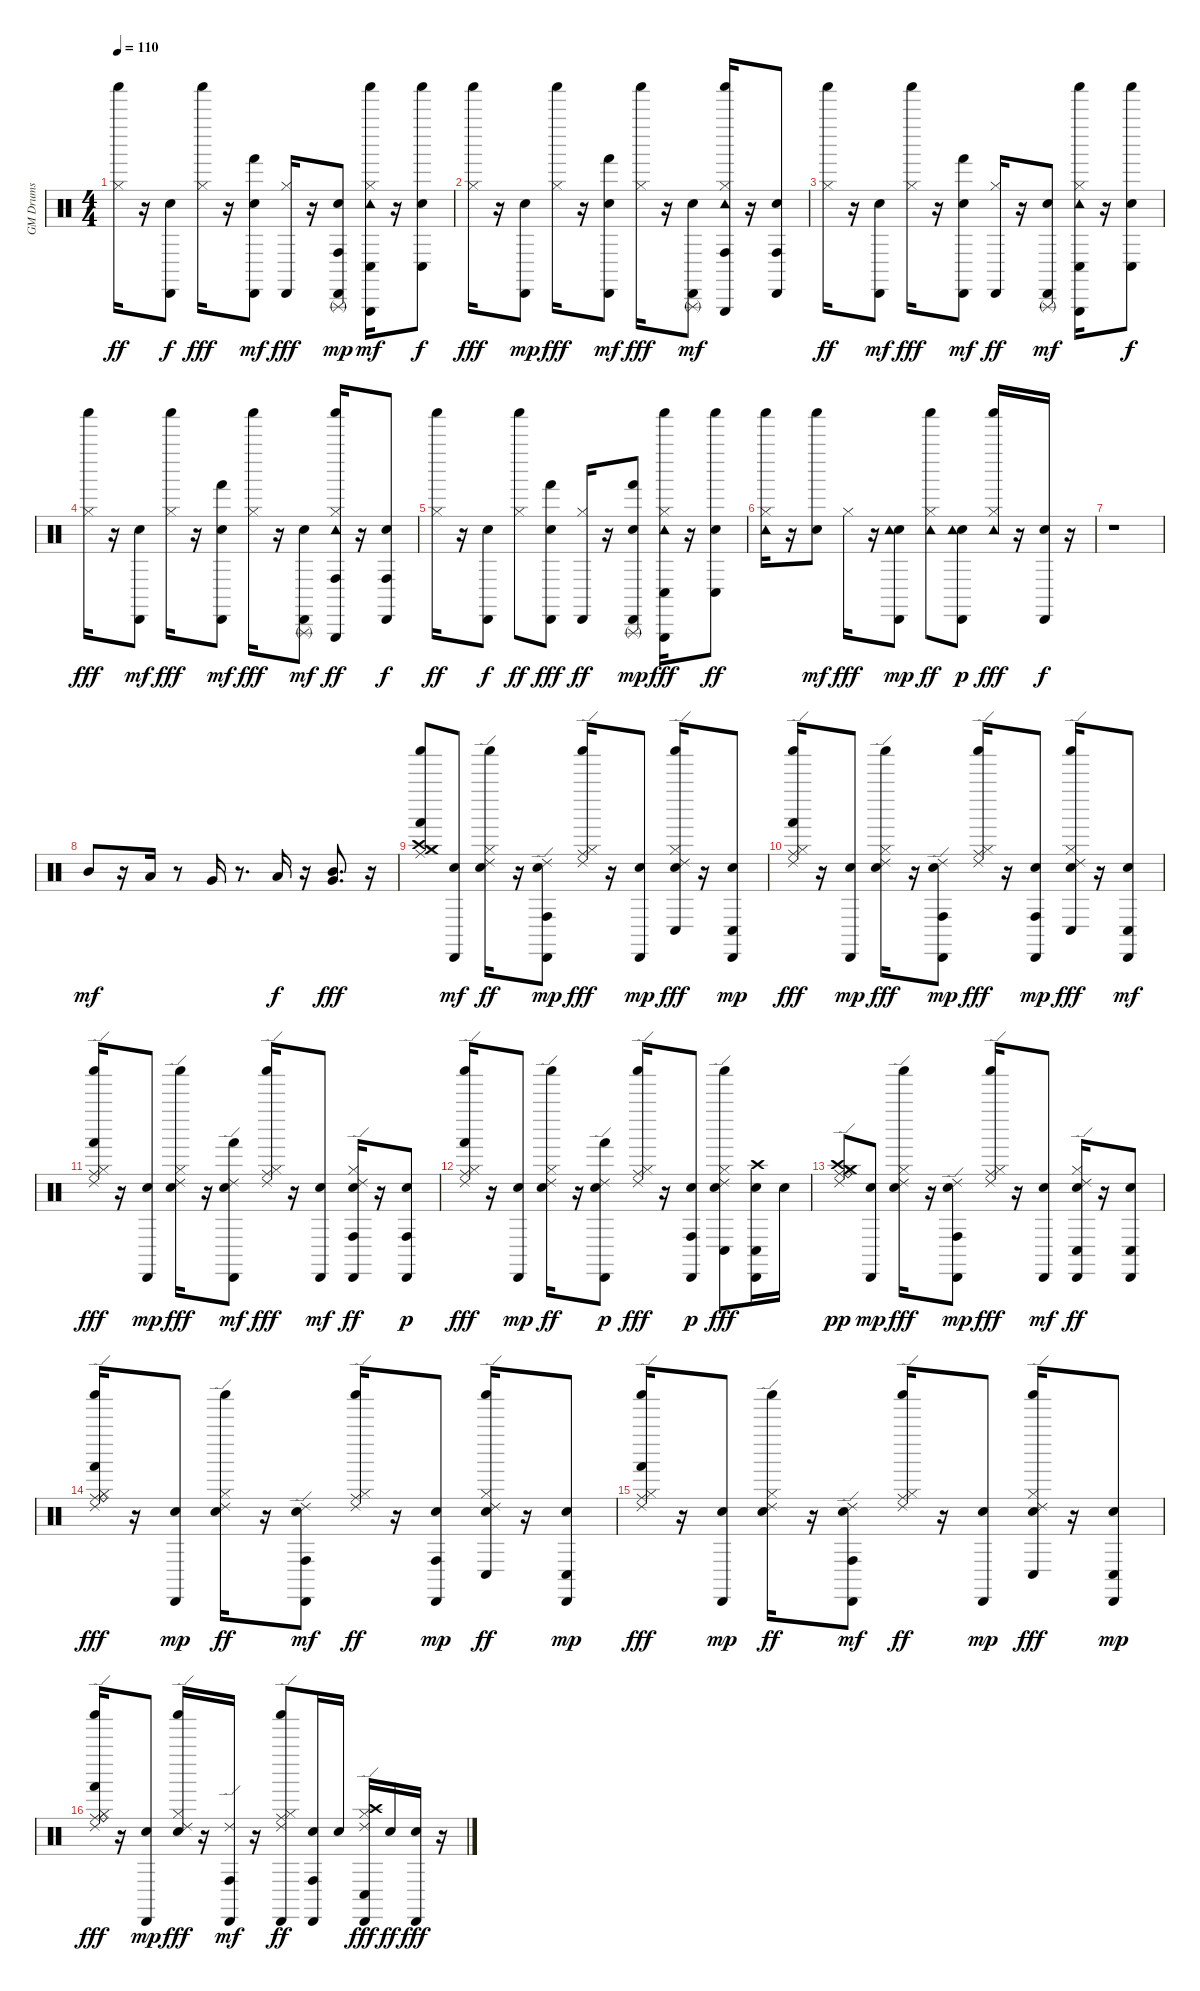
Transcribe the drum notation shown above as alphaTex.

\track ("GM Drums" "GM Drums") {instrument percussion}
\staff {score}
\articulation defaults
\ts (4 4)
\tempo 110
\clef neutral
\ks c
("Hi-Hat (closed)" "Shaker (hit)").16{dy ff} r.16 ("Snare (hit)" "Cabasa (hit)").8{dy f} ("Hi-Hat (closed)" "Shaker (hit)").16{dy fff} r.16 ("Snare (hit)" "Hand (hit)" "Cabasa (hit)").8{dy mf} ("Hi-Hat (closed)" "Cabasa (hit)").16{dy fff} r.16 ("Snare (hit)" "Conga high (hit)" "Cabasa (hit)" "Triangle (rnute)").8{dy mp} ("Hi-Hat (closed)" "Tambourine (hit)" "Conga low (hit)" "Triangle (hit)" "Shaker (hit)").16{dy mf} r.16 ("Snare (hit)" "Conga low (hit)" "Shaker (hit)").8{dy f} |
("Hi-Hat (closed)" "Shaker (hit)").16{dy fff} r.16 ("Snare (hit)" "Cabasa (hit)").8{dy mp} ("Hi-Hat (closed)" "Shaker (hit)").16{dy fff} r.16 ("Snare (hit)" "Hand (hit)" "Cabasa (hit)").8{dy mf} ("Hi-Hat (closed)" "Shaker (hit)").16{dy fff} r.16 ("Snare (hit)" "Cabasa (hit)" "Triangle (rnute)").8{dy mf} ("Hi-Hat (closed)" "Tambourine (hit)" "Conga high (hit)" "Triangle (hit)" "Shaker (hit)").16 r.16 ("Snare (hit)" "Conga high (hit)" "Cabasa (hit)").8 |
("Hi-Hat (closed)" "Shaker (hit)").16{dy ff} r.16 ("Snare (hit)" "Cabasa (hit)").8{dy mf} ("Hi-Hat (closed)" "Shaker (hit)").16{dy fff} r.16 ("Snare (hit)" "Hand (hit)" "Cabasa (hit)").8{dy mf} ("Hi-Hat (closed)" "Cabasa (hit)").16{dy ff} r.16 ("Snare (hit)" "Cabasa (hit)" "Triangle (rnute)").8{dy mf} ("Hi-Hat (closed)" "Tambourine (hit)" "Conga low (hit)" "Triangle (hit)" "Shaker (hit)").16 r.16 ("Snare (hit)" "Conga low (hit)" "Shaker (hit)").8{dy f} |
("Hi-Hat (closed)" "Shaker (hit)").16{dy fff} r.16 ("Snare (hit)" "Cabasa (hit)").8{dy mf} ("Hi-Hat (closed)" "Shaker (hit)").16{dy fff} r.16 ("Snare (hit)" "Hand (hit)" "Cabasa (hit)").8{dy mf} ("Hi-Hat (closed)" "Shaker (hit)").16{dy fff} r.16 ("Snare (hit)" "Cabasa (hit)" "Triangle (rnute)").8{dy mf} ("Hi-Hat (closed)" "Tambourine (hit)" "Conga high (hit)" "Triangle (hit)" "Shaker (hit)").16{dy ff} r.16 ("Snare (hit)" "Conga high (hit)" "Cabasa (hit)").8{dy f} |
("Hi-Hat (closed)" "Shaker (hit)").16{dy ff} r.16 ("Snare (hit)" "Cabasa (hit)").8{dy f} ("Hi-Hat (closed)" "Shaker (hit)").8{dy ff} ("Snare (hit)" "Hand (hit)" "Cabasa (hit)").8{dy fff} ("Hi-Hat (closed)" "Cabasa (hit)").16{dy ff} r.16 ("Snare (hit)" "Hand (hit)" "Cabasa (hit)" "Triangle (rnute)").8{dy mp} ("Hi-Hat (closed)" "Tambourine (hit)" "Conga low (hit)" "Triangle (hit)" "Shaker (hit)").16{dy fff} r.16 ("Snare (hit)" "Conga low (hit)" "Shaker (hit)").8{dy ff} |
("Hi-Hat (closed)" "Tambourine (hit)" "Shaker (hit)").16 r.16 ("Snare (hit)" "Shaker (hit)").8{dy mf} "Hi-Hat (closed)".16{dy fff} r.16 ("Snare (hit)" "Tambourine (hit)" "Cabasa (hit)").8{dy mp} ("Hi-Hat (closed)" "Tambourine (hit)" "Shaker (hit)").8{dy ff} ("Snare (hit)" "Tambourine (hit)" "Cabasa (hit)").8{dy p} ("Hi-Hat (closed)" "Tambourine (hit)" "Shaker (hit)").16{dy fff} r.16 ("Snare (hit)" "Cabasa (hit)").16{dy f} r.16 |
r.1 |
"Mid Tom (hit)".8{dy mf} r.16 "Low Tom (hit)".16 r.8 "Very Low Tom (hit)".16 r.8{d} "Low Floor Tom (hit)".16{dy f} r.16 ("Very Low Tom (hit)" "Mid Tom (hit)").8{d dy fff} r.16 |
("Hi-Hat (closed)" "Crash high (hit)" "Ride (middle)" "Crash medium (hit)" "Hand (hit)" "Shaker (hit)").8 ("Snare (hit)" "Cabasa (hit)").8{dy mf} ("Snare (hit) 2" "Hi-Hat (closed)" "Ride (edge) 2" "Shaker (hit)").16{dy ff} r.16 ("Snare (hit)" "Ride (edge) 2" "Conga high (hit)" "Cabasa (hit)").8{dy mp} ("Hi-Hat (closed)" "Ride (middle)" "Ride (edge) 2" "Shaker (hit)").16{dy fff} r.16 ("Snare (hit)" "Cabasa (hit)").8{dy mp} ("Snare (hit) 2" "Hi-Hat (closed)" "Ride (edge) 2" "Conga low (hit)" "Shaker (hit)").16{dy fff} r.16 ("Snare (hit)" "Conga low (hit)" "Cabasa (hit)").8{dy mp} |
("Hi-Hat (closed)" "Ride (middle)" "Ride (edge) 2" "Hand (hit)" "Shaker (hit)").16{dy fff} r.16 ("Snare (hit)" "Cabasa (hit)").8{dy mp} ("Snare (hit) 2" "Hi-Hat (closed)" "Ride (edge) 2" "Shaker (hit)").16{dy fff} r.16 ("Snare (hit)" "Ride (edge) 2" "Conga high (hit)" "Cabasa (hit)").8{dy mp} ("Hi-Hat (closed)" "Ride (middle)" "Ride (edge) 2" "Shaker (hit)").16{dy fff} r.16 ("Snare (hit)" "Conga high (hit)" "Cabasa (hit)").8{dy mp} ("Snare (hit) 2" "Hi-Hat (closed)" "Ride (edge) 2" "Conga low (hit)" "Shaker (hit)").16{dy fff} r.16 ("Snare (hit)" "Conga low (hit)" "Cabasa (hit)").8{dy mf} |
("Hi-Hat (closed)" "Ride (middle)" "Ride (edge) 2" "Hand (hit)" "Shaker (hit)").16{dy fff} r.16 ("Snare (hit)" "Cabasa (hit)").8{dy mp} ("Snare (hit) 2" "Hi-Hat (closed)" "Ride (edge) 2" "Shaker (hit)").16{dy fff} r.16 ("Snare (hit)" "Ride (edge) 2" "Hand (hit)" "Cabasa (hit)").8{dy mf} ("Hi-Hat (closed)" "Ride (middle)" "Ride (edge) 2" "Shaker (hit)").16{dy fff} r.16 ("Snare (hit)" "Cabasa (hit)").8{dy mf} ("Snare (hit) 2" "Hi-Hat (closed)" "Ride (edge) 2" "Conga high (hit)" "Cabasa (hit)").16{dy ff} r.16 ("Snare (hit)" "Conga high (hit)" "Cabasa (hit)").8{dy p} |
("Hi-Hat (closed)" "Ride (middle)" "Ride (edge) 2" "Hand (hit)" "Shaker (hit)").16{dy fff} r.16 ("Snare (hit)" "Cabasa (hit)").8{dy mp} ("Snare (hit) 2" "Hi-Hat (closed)" "Ride (edge) 2" "Shaker (hit)").16{dy ff} r.16 ("Snare (hit)" "Ride (edge) 2" "Hand (hit)" "Cabasa (hit)").8{dy p} ("Hi-Hat (closed)" "Ride (middle)" "Ride (edge) 2" "Shaker (hit)").16{dy fff} r.16 ("Snare (hit)" "Conga high (hit)" "Cabasa (hit)").8{dy p} ("Snare (hit) 2" "Hi-Hat (closed)" "Ride (edge) 2" "Conga low (hit)" "Shaker (hit)").8{dy fff} ("Snare (hit)" "Conga low (hit)" "Cabasa (hit)" "Crash high (hit)").16 "Snare (hit) 2".16 |
("Hi-Hat (closed)" "Crash high (hit)" "Ride (middle)" "Ride (bell)" "Crash medium (hit)" "Ride (edge) 2").8{dy pp} ("Snare (hit)" "Cabasa (hit)").8{dy mp} ("Snare (hit) 2" "Hi-Hat (closed)" "Ride (edge) 2" "Shaker (hit)").16{dy fff} r.16 ("Snare (hit)" "Ride (edge) 2" "Conga high (hit)" "Cabasa (hit)").8{dy mp} ("Hi-Hat (closed)" "Ride (middle)" "Ride (edge) 2" "Shaker (hit)").16{dy fff} r.16 ("Snare (hit)" "Cabasa (hit)").8{dy mf} ("Snare (hit) 2" "Hi-Hat (closed)" "Ride (edge) 2" "Conga low (hit)" "Cabasa (hit)").16{dy ff} r.16 ("Snare (hit)" "Conga low (hit)" "Cabasa (hit)").8 |
("Hi-Hat (closed)" "Ride (middle)" "Ride (bell)" "Ride (edge) 2" "Hand (hit)" "Shaker (hit)").16{dy fff} r.16 ("Snare (hit)" "Cabasa (hit)").8{dy mp} ("Snare (hit) 2" "Hi-Hat (closed)" "Ride (edge) 2" "Shaker (hit)").16{dy ff} r.16 ("Snare (hit)" "Ride (edge) 2" "Conga high (hit)" "Cabasa (hit)").8{dy mf} ("Hi-Hat (closed)" "Ride (middle)" "Ride (edge) 2" "Shaker (hit)").16{dy ff} r.16 ("Snare (hit)" "Conga high (hit)" "Cabasa (hit)").8{dy mp} ("Snare (hit) 2" "Hi-Hat (closed)" "Ride (edge) 2" "Conga low (hit)" "Shaker (hit)").16{dy ff} r.16 ("Snare (hit)" "Conga low (hit)" "Cabasa (hit)").8{dy mp} |
("Hi-Hat (closed)" "Ride (middle)" "Ride (edge) 2" "Hand (hit)" "Shaker (hit)").16{dy fff} r.16 ("Snare (hit)" "Cabasa (hit)").8{dy mp} ("Snare (hit) 2" "Hi-Hat (closed)" "Ride (edge) 2" "Shaker (hit)").16{dy ff} r.16 ("Snare (hit)" "Ride (edge) 2" "Conga high (hit)" "Cabasa (hit)").8{dy mf} ("Hi-Hat (closed)" "Ride (middle)" "Ride (edge) 2" "Shaker (hit)").16{dy ff} r.16 ("Snare (hit)" "Cabasa (hit)").8{dy mp} ("Snare (hit) 2" "Hi-Hat (closed)" "Ride (edge) 2" "Conga low (hit)" "Shaker (hit)").16{dy fff} r.16 ("Snare (hit)" "Conga low (hit)" "Cabasa (hit)").8{dy mp} |
("Hi-Hat (closed)" "Ride (middle)" "Ride (bell)" "Ride (edge) 2" "Hand (hit)" "Shaker (hit)").16{dy fff} r.16 ("Snare (hit)" "Cabasa (hit)").8{dy mp} ("Snare (hit) 2" "Hi-Hat (closed)" "Ride (edge) 2" "Shaker (hit)").16{dy fff} r.16 ("Ride (edge) 2" "Conga high (hit)" "Cabasa (hit)").16{dy mf} r.16 ("Hi-Hat (closed)" "Ride (middle)" "Ride (edge) 2" "Cabasa (hit)" "Shaker (hit)").8{dy ff} ("Snare (hit) 2" "Conga high (hit)" "Cabasa (hit)").16 "Snare (hit) 2".16 ("Hi-Hat (closed)" "Ride (edge) 2" "Conga low (hit)" "Cabasa (hit)" "Crash high (hit)").16{dy fff} "Snare (hit) 2".16{dy ff} ("Snare (hit) 2" "Cabasa (hit)").16{dy fff} r.16
